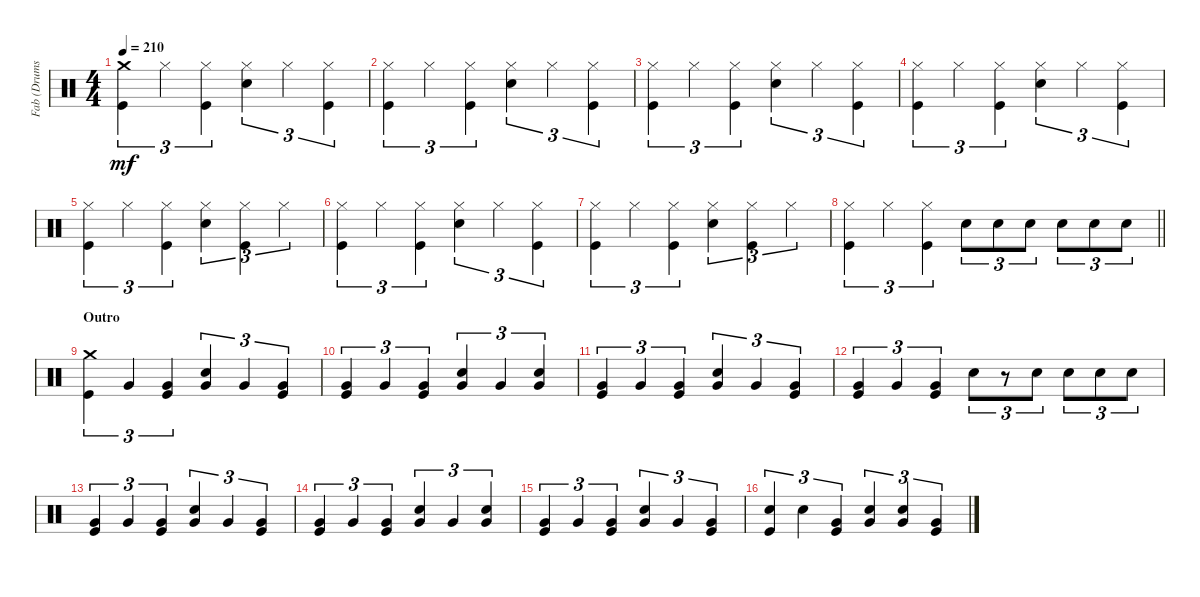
\track ("Fab (Drums)" "Fab (Drums") {instrument percussion}
\staff {score}
\articulation defaults
\ts (4 4)
\tempo 210
\clef neutral
\ks c
("Kick (hit)" "Crash medium (hit)").4{tu (3 2) dy mf} "Hi-Hat (closed)".4{tu (3 2)} ("Hi-Hat (closed)" "Kick (hit)").4{tu (3 2)} ("Hi-Hat (closed)" "Snare (hit) 2").4{tu (3 2)} "Hi-Hat (closed)".4{tu (3 2)} ("Hi-Hat (closed)" "Kick (hit)").4{tu (3 2)} |
("Kick (hit)" "Hi-Hat (closed)").4{tu (3 2)} "Hi-Hat (closed)".4{tu (3 2)} ("Hi-Hat (closed)" "Kick (hit)").4{tu (3 2)} ("Hi-Hat (closed)" "Snare (hit) 2").4{tu (3 2)} "Hi-Hat (closed)".4{tu (3 2)} ("Hi-Hat (closed)" "Kick (hit)").4{tu (3 2)} |
("Kick (hit)" "Hi-Hat (closed)").4{tu (3 2)} "Hi-Hat (closed)".4{tu (3 2)} ("Hi-Hat (closed)" "Kick (hit)").4{tu (3 2)} ("Hi-Hat (closed)" "Snare (hit) 2").4{tu (3 2)} "Hi-Hat (closed)".4{tu (3 2)} ("Hi-Hat (closed)" "Kick (hit)").4{tu (3 2)} |
("Kick (hit)" "Hi-Hat (closed)").4{tu (3 2)} "Hi-Hat (closed)".4{tu (3 2)} ("Hi-Hat (closed)" "Kick (hit)").4{tu (3 2)} ("Hi-Hat (closed)" "Snare (hit) 2").4{tu (3 2)} "Hi-Hat (closed)".4{tu (3 2)} ("Hi-Hat (closed)" "Kick (hit)").4{tu (3 2)} |
("Kick (hit)" "Hi-Hat (closed)").4{tu (3 2)} "Hi-Hat (closed)".4{tu (3 2)} ("Hi-Hat (closed)" "Kick (hit)").4{tu (3 2)} ("Hi-Hat (closed)" "Snare (hit) 2").4{tu (3 2)} ("Hi-Hat (closed)" "Kick (hit)").4{tu (3 2)} "Hi-Hat (closed)".4{tu (3 2)} |
("Kick (hit)" "Hi-Hat (closed)").4{tu (3 2)} "Hi-Hat (closed)".4{tu (3 2)} ("Hi-Hat (closed)" "Kick (hit)").4{tu (3 2)} ("Hi-Hat (closed)" "Snare (hit) 2").4{tu (3 2)} "Hi-Hat (closed)".4{tu (3 2)} ("Hi-Hat (closed)" "Kick (hit)").4{tu (3 2)} |
("Kick (hit)" "Hi-Hat (closed)").4{tu (3 2)} "Hi-Hat (closed)".4{tu (3 2)} ("Hi-Hat (closed)" "Kick (hit)").4{tu (3 2)} ("Hi-Hat (closed)" "Snare (hit) 2").4{tu (3 2)} ("Hi-Hat (closed)" "Kick (hit)").4{tu (3 2)} "Hi-Hat (closed)".4{tu (3 2)} |
\barLineRight lightlight
("Kick (hit)" "Hi-Hat (closed)").4{tu (3 2)} "Hi-Hat (closed)".4{tu (3 2)} ("Hi-Hat (closed)" "Kick (hit)").4{tu (3 2)} "Snare (hit) 2".8{tu (3 2)} "Snare (hit) 2".8{tu (3 2)} "Snare (hit) 2".8{tu (3 2)} "Snare (hit) 2".8{tu (3 2)} "Snare (hit) 2".8{tu (3 2)} "Snare (hit) 2".8{tu (3 2)} |
\section ("" "Outro")
("Kick (hit)" "Crash medium (hit)").4{tu (3 2)} "Very Low Tom (hit)".4{tu (3 2)} ("Very Low Tom (hit)" "Kick (hit)").4{tu (3 2)} ("Very Low Tom (hit)" "Snare (hit) 2").4{tu (3 2)} "Very Low Tom (hit)".4{tu (3 2)} ("Very Low Tom (hit)" "Kick (hit)").4{tu (3 2)} |
("Kick (hit)" "Very Low Tom (hit)").4{tu (3 2)} "Very Low Tom (hit)".4{tu (3 2)} ("Very Low Tom (hit)" "Kick (hit)").4{tu (3 2)} ("Very Low Tom (hit)" "Snare (hit) 2").4{tu (3 2)} "Very Low Tom (hit)".4{tu (3 2)} ("Very Low Tom (hit)" "Snare (hit) 2").4{tu (3 2)} |
("Kick (hit)" "Very Low Tom (hit)").4{tu (3 2)} "Very Low Tom (hit)".4{tu (3 2)} ("Very Low Tom (hit)" "Kick (hit)").4{tu (3 2)} ("Very Low Tom (hit)" "Snare (hit) 2").4{tu (3 2)} "Very Low Tom (hit)".4{tu (3 2)} ("Very Low Tom (hit)" "Kick (hit)").4{tu (3 2)} |
("Kick (hit)" "Very Low Tom (hit)").4{tu (3 2)} "Very Low Tom (hit)".4{tu (3 2)} ("Very Low Tom (hit)" "Kick (hit)").4{tu (3 2)} "Snare (hit) 2".8{tu (3 2)} r.8{tu (3 2)} "Snare (hit) 2".8{tu (3 2)} "Snare (hit) 2".8{tu (3 2)} "Snare (hit) 2".8{tu (3 2)} "Snare (hit) 2".8{tu (3 2)} |
("Kick (hit)" "Very Low Tom (hit)").4{tu (3 2)} "Very Low Tom (hit)".4{tu (3 2)} ("Very Low Tom (hit)" "Kick (hit)").4{tu (3 2)} ("Very Low Tom (hit)" "Snare (hit) 2").4{tu (3 2)} "Very Low Tom (hit)".4{tu (3 2)} ("Very Low Tom (hit)" "Kick (hit)").4{tu (3 2)} |
("Kick (hit)" "Very Low Tom (hit)").4{tu (3 2)} "Very Low Tom (hit)".4{tu (3 2)} ("Very Low Tom (hit)" "Kick (hit)").4{tu (3 2)} ("Very Low Tom (hit)" "Snare (hit) 2").4{tu (3 2)} "Very Low Tom (hit)".4{tu (3 2)} ("Very Low Tom (hit)" "Snare (hit) 2").4{tu (3 2)} |
("Kick (hit)" "Very Low Tom (hit)").4{tu (3 2)} "Very Low Tom (hit)".4{tu (3 2)} ("Very Low Tom (hit)" "Kick (hit)").4{tu (3 2)} ("Very Low Tom (hit)" "Snare (hit) 2").4{tu (3 2)} "Very Low Tom (hit)".4{tu (3 2)} ("Very Low Tom (hit)" "Kick (hit)").4{tu (3 2)} |
("Kick (hit)" "Snare (hit) 2").4{tu (3 2)} "Snare (hit) 2".4{tu (3 2)} ("Very Low Tom (hit)" "Kick (hit)").4{tu (3 2)} ("Very Low Tom (hit)" "Snare (hit) 2").4{tu (3 2)} ("Very Low Tom (hit)" "Snare (hit) 2").4{tu (3 2)} ("Very Low Tom (hit)" "Kick (hit)").4{tu (3 2)}
